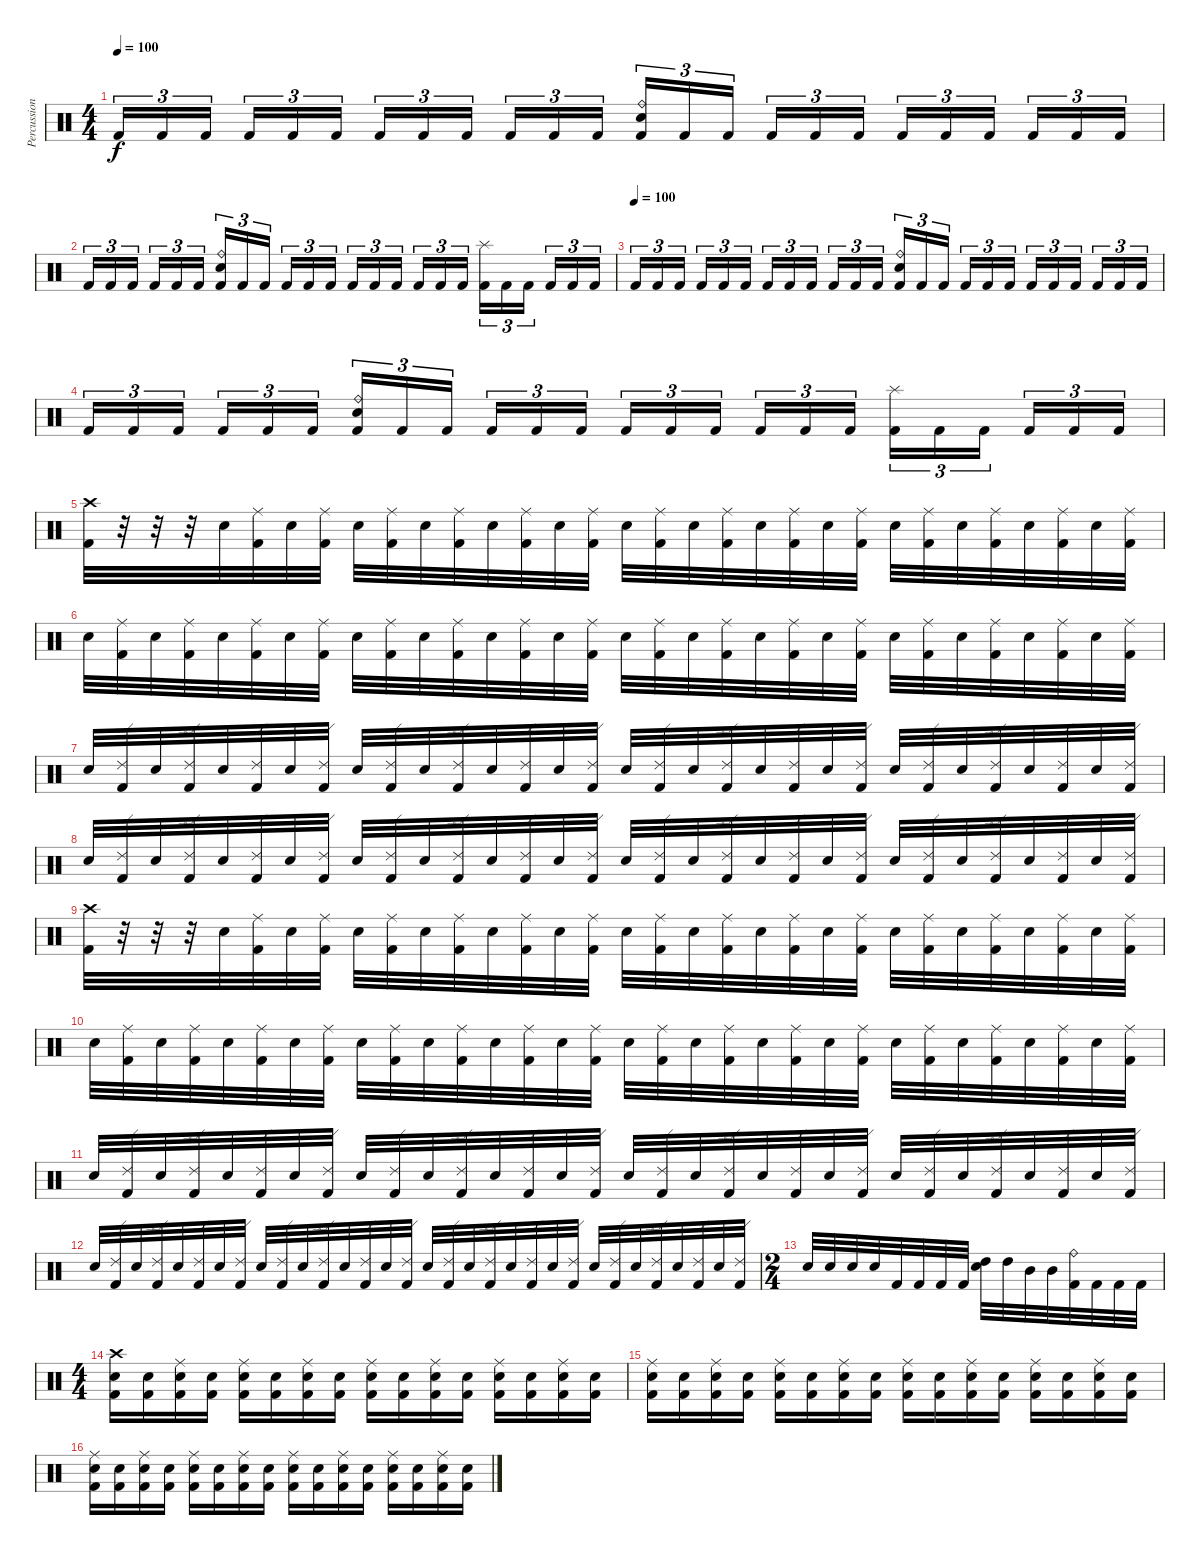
\track ("Percussion" "Percussion") {instrument percussion}
\staff {score}
\articulation defaults
\ts (4 4)
\tempo 100
\clef neutral
\ks c "Kick (hit) 2".16{tu (3 2) dy f} "Kick (hit) 2".16{tu (3 2)} "Kick (hit) 2".16{tu (3 2) beam splitsecondary} "Kick (hit) 2".16{tu (3 2)} "Kick (hit) 2".16{tu (3 2)} "Kick (hit) 2".16{tu (3 2)} "Kick (hit) 2".16{tu (3 2)} "Kick (hit) 2".16{tu (3 2)} "Kick (hit) 2".16{tu (3 2) beam splitsecondary} "Kick (hit) 2".16{tu (3 2)} "Kick (hit) 2".16{tu (3 2)} "Kick (hit) 2".16{tu (3 2)}
("Ride (bell)" "Snare (hit) 2" "Kick (hit) 2").16{tu (3 2)} "Kick (hit) 2".16{tu (3 2)} "Kick (hit) 2".16{tu (3 2) beam splitsecondary} "Kick (hit) 2".16{tu (3 2)} "Kick (hit) 2".16{tu (3 2)} "Kick (hit) 2".16{tu (3 2)} "Kick (hit) 2".16{tu (3 2)} "Kick (hit) 2".16{tu (3 2)} "Kick (hit) 2".16{tu (3 2) beam splitsecondary} "Kick (hit) 2".16{tu (3 2)} "Kick (hit) 2".16{tu (3 2)} "Kick (hit) 2".16{tu (3 2)} |
"Kick (hit) 2".16{tu (3 2)} "Kick (hit) 2".16{tu (3 2)} "Kick (hit) 2".16{tu (3 2) beam splitsecondary} "Kick (hit) 2".16{tu (3 2)} "Kick (hit) 2".16{tu (3 2)} "Kick (hit) 2".16{tu (3 2)} ("Ride (bell)" "Snare (hit) 2" "Kick (hit) 2").16{tu (3 2)} "Kick (hit) 2".16{tu (3 2)} "Kick (hit) 2".16{tu (3 2) beam splitsecondary} "Kick (hit) 2".16{tu (3 2)} "Kick (hit) 2".16{tu (3 2)} "Kick (hit) 2".16{tu (3 2)} "Kick (hit) 2".16{tu (3 2)} "Kick (hit) 2".16{tu (3 2)} "Kick (hit) 2".16{tu (3 2) beam splitsecondary} "Kick (hit) 2".16{tu (3 2)} "Kick (hit) 2".16{tu (3 2)} "Kick (hit) 2".16{tu (3 2)} ("Splash (hit)" "Kick (hit) 2").16{tu (3 2)} "Kick (hit) 2".16{tu (3 2)} "Kick (hit) 2".16{tu (3 2) beam splitsecondary} "Kick (hit) 2".16{tu (3 2)} "Kick (hit) 2".16{tu (3 2)} "Kick (hit) 2".16{tu (3 2)} |
\tempo (100)
"Kick (hit) 2".16{tu (3 2)} "Kick (hit) 2".16{tu (3 2)} "Kick (hit) 2".16{tu (3 2) beam splitsecondary} "Kick (hit) 2".16{tu (3 2)} "Kick (hit) 2".16{tu (3 2)} "Kick (hit) 2".16{tu (3 2)} "Kick (hit) 2".16{tu (3 2)} "Kick (hit) 2".16{tu (3 2)} "Kick (hit) 2".16{tu (3 2) beam splitsecondary} "Kick (hit) 2".16{tu (3 2)} "Kick (hit) 2".16{tu (3 2)} "Kick (hit) 2".16{tu (3 2)} ("Ride (bell)" "Snare (hit) 2" "Kick (hit) 2").16{tu (3 2)} "Kick (hit) 2".16{tu (3 2)} "Kick (hit) 2".16{tu (3 2) beam splitsecondary} "Kick (hit) 2".16{tu (3 2)} "Kick (hit) 2".16{tu (3 2)} "Kick (hit) 2".16{tu (3 2)} "Kick (hit) 2".16{tu (3 2)} "Kick (hit) 2".16{tu (3 2)} "Kick (hit) 2".16{tu (3 2) beam splitsecondary} "Kick (hit) 2".16{tu (3 2)} "Kick (hit) 2".16{tu (3 2)} "Kick (hit) 2".16{tu (3 2)} |
"Kick (hit) 2".16{tu (3 2)} "Kick (hit) 2".16{tu (3 2)} "Kick (hit) 2".16{tu (3 2) beam splitsecondary} "Kick (hit) 2".16{tu (3 2)} "Kick (hit) 2".16{tu (3 2)} "Kick (hit) 2".16{tu (3 2)} ("Ride (bell)" "Snare (hit) 2" "Kick (hit) 2").16{tu (3 2)} "Kick (hit) 2".16{tu (3 2)} "Kick (hit) 2".16{tu (3 2) beam splitsecondary} "Kick (hit) 2".16{tu (3 2)} "Kick (hit) 2".16{tu (3 2)} "Kick (hit) 2".16{tu (3 2)} "Kick (hit) 2".16{tu (3 2)} "Kick (hit) 2".16{tu (3 2)} "Kick (hit) 2".16{tu (3 2) beam splitsecondary} "Kick (hit) 2".16{tu (3 2)} "Kick (hit) 2".16{tu (3 2)} "Kick (hit) 2".16{tu (3 2)} ("Splash (hit)" "Kick (hit) 2").16{tu (3 2)} "Kick (hit) 2".16{tu (3 2)} "Kick (hit) 2".16{tu (3 2) beam splitsecondary} "Kick (hit) 2".16{tu (3 2)} "Kick (hit) 2".16{tu (3 2)} "Kick (hit) 2".16{tu (3 2)} |
("Crash high (hit)" "Kick (hit) 2").32 r.32 r.32 r.32 "Electric Snare (hit)".32 ("Ride (middle)" "Kick (hit) 2").32 "Electric Snare (hit)".32 ("Ride (middle)" "Kick (hit) 2").32 "Electric Snare (hit)".32 ("Ride (middle)" "Kick (hit) 2").32 "Electric Snare (hit)".32 ("Ride (middle)" "Kick (hit) 2").32 "Electric Snare (hit)".32 ("Ride (middle)" "Kick (hit) 2").32 "Electric Snare (hit)".32 ("Ride (middle)" "Kick (hit) 2").32 "Electric Snare (hit)".32 ("Ride (middle)" "Kick (hit) 2").32 "Electric Snare (hit)".32 ("Ride (middle)" "Kick (hit) 2").32 "Electric Snare (hit)".32 ("Ride (middle)" "Kick (hit) 2").32 "Electric Snare (hit)".32 ("Ride (middle)" "Kick (hit) 2").32 "Electric Snare (hit)".32 ("Ride (middle)" "Kick (hit) 2").32 "Electric Snare (hit)".32 ("Ride (middle)" "Kick (hit) 2").32 "Electric Snare (hit)".32 ("Ride (middle)" "Kick (hit) 2").32 "Electric Snare (hit)".32 ("Ride (middle)" "Kick (hit) 2").32 |
"Electric Snare (hit)".32 ("Ride (middle)" "Kick (hit) 2").32 "Electric Snare (hit)".32 ("Ride (middle)" "Kick (hit) 2").32 "Electric Snare (hit)".32 ("Ride (middle)" "Kick (hit) 2").32 "Electric Snare (hit)".32 ("Ride (middle)" "Kick (hit) 2").32 "Electric Snare (hit)".32 ("Ride (middle)" "Kick (hit) 2").32 "Electric Snare (hit)".32 ("Ride (middle)" "Kick (hit) 2").32 "Electric Snare (hit)".32 ("Ride (middle)" "Kick (hit) 2").32 "Electric Snare (hit)".32 ("Ride (middle)" "Kick (hit) 2").32 "Electric Snare (hit)".32 ("Ride (middle)" "Kick (hit) 2").32 "Electric Snare (hit)".32 ("Ride (middle)" "Kick (hit) 2").32 "Electric Snare (hit)".32 ("Ride (middle)" "Kick (hit) 2").32 "Electric Snare (hit)".32 ("Ride (middle)" "Kick (hit) 2").32 "Electric Snare (hit)".32 ("Ride (middle)" "Kick (hit) 2").32 "Electric Snare (hit)".32 ("Ride (middle)" "Kick (hit) 2").32 "Electric Snare (hit)".32 ("Ride (middle)" "Kick (hit) 2").32 "Electric Snare (hit)".32 ("Ride (middle)" "Kick (hit) 2").32 |
"Electric Snare (hit)".32 ("Ride (edge) 2" "Kick (hit) 2").32 "Electric Snare (hit)".32 ("Ride (edge) 2" "Kick (hit) 2").32 "Electric Snare (hit)".32 ("Ride (edge) 2" "Kick (hit) 2").32 "Electric Snare (hit)".32 ("Ride (edge) 2" "Kick (hit) 2").32 "Electric Snare (hit)".32 ("Ride (edge) 2" "Kick (hit) 2").32 "Electric Snare (hit)".32 ("Ride (edge) 2" "Kick (hit) 2").32 "Electric Snare (hit)".32 ("Ride (edge) 2" "Kick (hit) 2").32 "Electric Snare (hit)".32 ("Ride (edge) 2" "Kick (hit) 2").32 "Electric Snare (hit)".32 ("Ride (edge) 2" "Kick (hit) 2").32 "Electric Snare (hit)".32 ("Ride (edge) 2" "Kick (hit) 2").32 "Electric Snare (hit)".32 ("Ride (edge) 2" "Kick (hit) 2").32 "Electric Snare (hit)".32 ("Ride (edge) 2" "Kick (hit) 2").32 "Electric Snare (hit)".32 ("Ride (edge) 2" "Kick (hit) 2").32 "Electric Snare (hit)".32 ("Ride (edge) 2" "Kick (hit) 2").32 "Electric Snare (hit)".32 ("Ride (edge) 2" "Kick (hit) 2").32 "Electric Snare (hit)".32 ("Ride (edge) 2" "Kick (hit) 2").32 |
"Electric Snare (hit)".32 ("Ride (edge) 2" "Kick (hit) 2").32 "Electric Snare (hit)".32 ("Ride (edge) 2" "Kick (hit) 2").32 "Electric Snare (hit)".32 ("Ride (edge) 2" "Kick (hit) 2").32 "Electric Snare (hit)".32 ("Ride (edge) 2" "Kick (hit) 2").32 "Electric Snare (hit)".32 ("Ride (edge) 2" "Kick (hit) 2").32 "Electric Snare (hit)".32 ("Ride (edge) 2" "Kick (hit) 2").32 "Electric Snare (hit)".32 ("Ride (edge) 2" "Kick (hit) 2").32 "Electric Snare (hit)".32 ("Ride (edge) 2" "Kick (hit) 2").32 "Electric Snare (hit)".32 ("Ride (edge) 2" "Kick (hit) 2").32 "Electric Snare (hit)".32 ("Ride (edge) 2" "Kick (hit) 2").32 "Electric Snare (hit)".32 ("Ride (edge) 2" "Kick (hit) 2").32 "Electric Snare (hit)".32 ("Ride (edge) 2" "Kick (hit) 2").32 "Electric Snare (hit)".32 ("Ride (edge) 2" "Kick (hit) 2").32 "Electric Snare (hit)".32 ("Ride (edge) 2" "Kick (hit) 2").32 "Electric Snare (hit)".32 ("Ride (edge) 2" "Kick (hit) 2").32 "Electric Snare (hit)".32 ("Ride (edge) 2" "Kick (hit) 2").32 |
("Crash high (hit)" "Kick (hit) 2").32 r.32 r.32 r.32 "Electric Snare (hit)".32 ("Ride (middle)" "Kick (hit) 2").32 "Electric Snare (hit)".32 ("Ride (middle)" "Kick (hit) 2").32 "Electric Snare (hit)".32 ("Ride (middle)" "Kick (hit) 2").32 "Electric Snare (hit)".32 ("Ride (middle)" "Kick (hit) 2").32 "Electric Snare (hit)".32 ("Ride (middle)" "Kick (hit) 2").32 "Electric Snare (hit)".32 ("Ride (middle)" "Kick (hit) 2").32 "Electric Snare (hit)".32 ("Ride (middle)" "Kick (hit) 2").32 "Electric Snare (hit)".32 ("Ride (middle)" "Kick (hit) 2").32 "Electric Snare (hit)".32 ("Ride (middle)" "Kick (hit) 2").32 "Electric Snare (hit)".32 ("Ride (middle)" "Kick (hit) 2").32 "Electric Snare (hit)".32 ("Ride (middle)" "Kick (hit) 2").32 "Electric Snare (hit)".32 ("Ride (middle)" "Kick (hit) 2").32 "Electric Snare (hit)".32 ("Ride (middle)" "Kick (hit) 2").32 "Electric Snare (hit)".32 ("Ride (middle)" "Kick (hit) 2").32 |
"Electric Snare (hit)".32 ("Ride (middle)" "Kick (hit) 2").32 "Electric Snare (hit)".32 ("Ride (middle)" "Kick (hit) 2").32 "Electric Snare (hit)".32 ("Ride (middle)" "Kick (hit) 2").32 "Electric Snare (hit)".32 ("Ride (middle)" "Kick (hit) 2").32 "Electric Snare (hit)".32 ("Ride (middle)" "Kick (hit) 2").32 "Electric Snare (hit)".32 ("Ride (middle)" "Kick (hit) 2").32 "Electric Snare (hit)".32 ("Ride (middle)" "Kick (hit) 2").32 "Electric Snare (hit)".32 ("Ride (middle)" "Kick (hit) 2").32 "Electric Snare (hit)".32 ("Ride (middle)" "Kick (hit) 2").32 "Electric Snare (hit)".32 ("Ride (middle)" "Kick (hit) 2").32 "Electric Snare (hit)".32 ("Ride (middle)" "Kick (hit) 2").32 "Electric Snare (hit)".32 ("Ride (middle)" "Kick (hit) 2").32 "Electric Snare (hit)".32 ("Ride (middle)" "Kick (hit) 2").32 "Electric Snare (hit)".32 ("Ride (middle)" "Kick (hit) 2").32 "Electric Snare (hit)".32 ("Ride (middle)" "Kick (hit) 2").32 "Electric Snare (hit)".32 ("Ride (middle)" "Kick (hit) 2").32 |
"Electric Snare (hit)".32 ("Ride (edge) 2" "Kick (hit) 2").32 "Electric Snare (hit)".32 ("Ride (edge) 2" "Kick (hit) 2").32 "Electric Snare (hit)".32 ("Ride (edge) 2" "Kick (hit) 2").32 "Electric Snare (hit)".32 ("Ride (edge) 2" "Kick (hit) 2").32 "Electric Snare (hit)".32 ("Ride (edge) 2" "Kick (hit) 2").32 "Electric Snare (hit)".32 ("Ride (edge) 2" "Kick (hit) 2").32 "Electric Snare (hit)".32 ("Ride (edge) 2" "Kick (hit) 2").32 "Electric Snare (hit)".32 ("Ride (edge) 2" "Kick (hit) 2").32 "Electric Snare (hit)".32 ("Ride (edge) 2" "Kick (hit) 2").32 "Electric Snare (hit)".32 ("Ride (edge) 2" "Kick (hit) 2").32 "Electric Snare (hit)".32 ("Ride (edge) 2" "Kick (hit) 2").32 "Electric Snare (hit)".32 ("Ride (edge) 2" "Kick (hit) 2").32 "Electric Snare (hit)".32 ("Ride (edge) 2" "Kick (hit) 2").32 "Electric Snare (hit)".32 ("Ride (edge) 2" "Kick (hit) 2").32 "Electric Snare (hit)".32 ("Ride (edge) 2" "Kick (hit) 2").32 "Electric Snare (hit)".32 ("Ride (edge) 2" "Kick (hit) 2").32 |
"Electric Snare (hit)".32 ("Ride (edge) 2" "Kick (hit) 2").32 "Electric Snare (hit)".32 ("Ride (edge) 2" "Kick (hit) 2").32 "Electric Snare (hit)".32 ("Ride (edge) 2" "Kick (hit) 2").32 "Electric Snare (hit)".32 ("Ride (edge) 2" "Kick (hit) 2").32 "Electric Snare (hit)".32 ("Ride (edge) 2" "Kick (hit) 2").32 "Electric Snare (hit)".32 ("Ride (edge) 2" "Kick (hit) 2").32 "Electric Snare (hit)".32 ("Ride (edge) 2" "Kick (hit) 2").32 "Electric Snare (hit)".32 ("Ride (edge) 2" "Kick (hit) 2").32 "Electric Snare (hit)".32 ("Ride (edge) 2" "Kick (hit) 2").32 "Electric Snare (hit)".32 ("Ride (edge) 2" "Kick (hit) 2").32 "Electric Snare (hit)".32 ("Ride (edge) 2" "Kick (hit) 2").32 "Electric Snare (hit)".32 ("Ride (edge) 2" "Kick (hit) 2").32 "Electric Snare (hit)".32 ("Ride (edge) 2" "Kick (hit) 2").32 "Electric Snare (hit)".32 ("Ride (edge) 2" "Kick (hit) 2").32 "Electric Snare (hit)".32 ("Ride (edge) 2" "Kick (hit) 2").32 "Electric Snare (hit)".32 ("Ride (edge) 2" "Kick (hit) 2").32 |
\ts (2 4)
"Electric Snare (hit)".32 "Electric Snare (hit)".32 "Electric Snare (hit)".32 "Electric Snare (hit)".32 "Kick (hit) 2".32 "Kick (hit) 2".32 "Kick (hit) 2".32 "Kick (hit) 2".32 ("High Tom (hit)" "Electric Snare (hit)").32 "High Tom (hit)".32 "Mid Tom (hit)".32 "Mid Tom (hit)".32 ("Ride (bell)" "Kick (hit) 2").32 "Kick (hit) 2".32 "Kick (hit) 2".32 "Kick (hit) 2".32 |
\ts (4 4)
("Crash high (hit)" "Electric Snare (hit)" "Kick (hit) 2").16 ("Electric Snare (hit)" "Kick (hit) 2").16 ("Ride (middle)" "Electric Snare (hit)" "Kick (hit) 2").16 ("Electric Snare (hit)" "Kick (hit) 2").16 ("Ride (middle)" "Electric Snare (hit)" "Kick (hit) 2").16 ("Electric Snare (hit)" "Kick (hit) 2").16 ("Ride (middle)" "Electric Snare (hit)" "Kick (hit) 2").16 ("Electric Snare (hit)" "Kick (hit) 2").16 ("Ride (middle)" "Electric Snare (hit)" "Kick (hit) 2").16 ("Electric Snare (hit)" "Kick (hit) 2").16 ("Ride (middle)" "Electric Snare (hit)" "Kick (hit) 2").16 ("Electric Snare (hit)" "Kick (hit) 2").16 ("Ride (middle)" "Electric Snare (hit)" "Kick (hit) 2").16 ("Electric Snare (hit)" "Kick (hit) 2").16 ("Ride (middle)" "Electric Snare (hit)" "Kick (hit) 2").16 ("Electric Snare (hit)" "Kick (hit) 2").16 |
("Ride (middle)" "Electric Snare (hit)" "Kick (hit) 2").16 ("Electric Snare (hit)" "Kick (hit) 2").16 ("Ride (middle)" "Electric Snare (hit)" "Kick (hit) 2").16 ("Electric Snare (hit)" "Kick (hit) 2").16 ("Ride (middle)" "Electric Snare (hit)" "Kick (hit) 2").16 ("Electric Snare (hit)" "Kick (hit) 2").16 ("Ride (middle)" "Electric Snare (hit)" "Kick (hit) 2").16 ("Electric Snare (hit)" "Kick (hit) 2").16 ("Ride (middle)" "Electric Snare (hit)" "Kick (hit) 2").16 ("Electric Snare (hit)" "Kick (hit) 2").16 ("Ride (middle)" "Electric Snare (hit)" "Kick (hit) 2").16 ("Electric Snare (hit)" "Kick (hit) 2").16 ("Ride (middle)" "Electric Snare (hit)" "Kick (hit) 2").16 ("Electric Snare (hit)" "Kick (hit) 2").16 ("Ride (middle)" "Electric Snare (hit)" "Kick (hit) 2").16 ("Electric Snare (hit)" "Kick (hit) 2").16 |
("Ride (middle)" "Electric Snare (hit)" "Kick (hit) 2").16 ("Electric Snare (hit)" "Kick (hit) 2").16 ("Ride (middle)" "Electric Snare (hit)" "Kick (hit) 2").16 ("Electric Snare (hit)" "Kick (hit) 2").16 ("Ride (middle)" "Electric Snare (hit)" "Kick (hit) 2").16 ("Electric Snare (hit)" "Kick (hit) 2").16 ("Ride (middle)" "Electric Snare (hit)" "Kick (hit) 2").16 ("Electric Snare (hit)" "Kick (hit) 2").16 ("Ride (middle)" "Electric Snare (hit)" "Kick (hit) 2").16 ("Electric Snare (hit)" "Kick (hit) 2").16 ("Ride (middle)" "Electric Snare (hit)" "Kick (hit) 2").16 ("Electric Snare (hit)" "Kick (hit) 2").16 ("Ride (middle)" "Electric Snare (hit)" "Kick (hit) 2").16 ("Electric Snare (hit)" "Kick (hit) 2").16 ("Ride (middle)" "Electric Snare (hit)" "Kick (hit) 2").16 ("Electric Snare (hit)" "Kick (hit) 2").16
